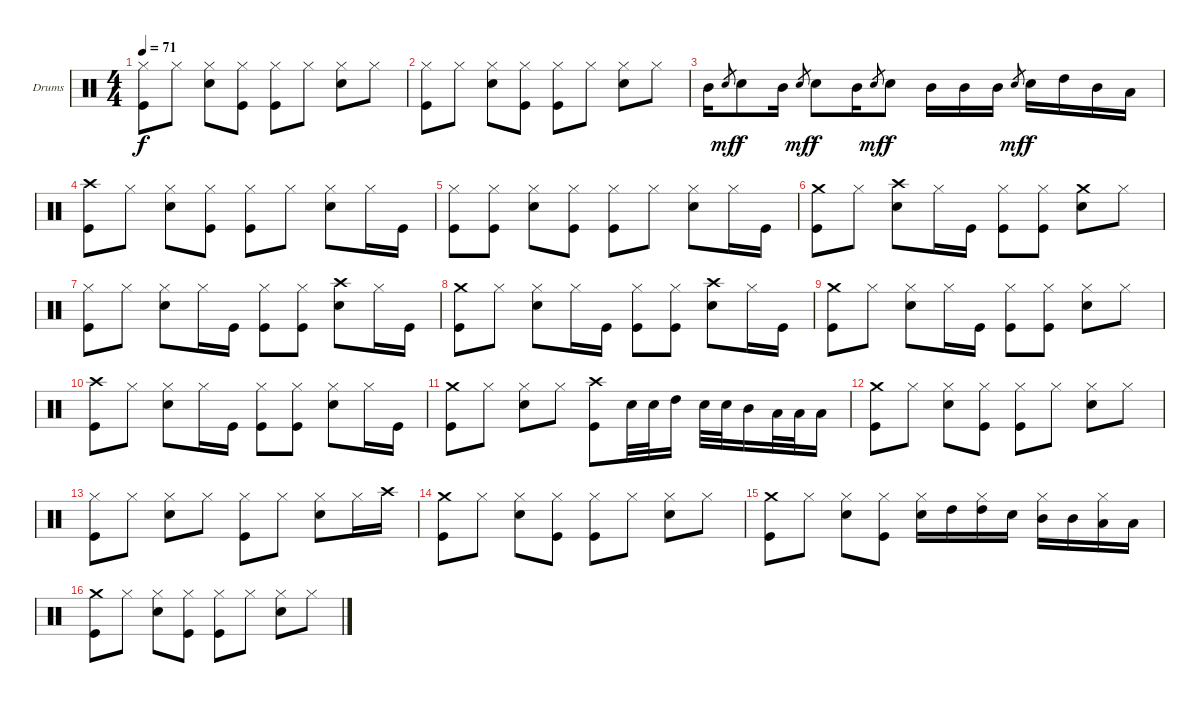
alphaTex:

\bracketExtendMode groupsimilarinstruments
\firstSystemTrackNameOrientation horizontal
\otherSystemsTrackNameOrientation horizontal
\track ("Барабаны" "Drums") {instrument percussion}
\staff {score}
\articulation defaults
\ts (4 4)
\tempo 71
\clef neutral
\scale
0.333333
\ks c
("Hi-Hat (closed)" "Kick (hit)").8{dy f} "Hi-Hat (closed)".8 ("Hi-Hat (closed)" "Snare (hit) 2").8 ("Hi-Hat (closed)" "Kick (hit)").8 ("Hi-Hat (closed)" "Kick (hit)").8 "Hi-Hat (closed)".8 ("Hi-Hat (closed)" "Snare (hit) 2").8 "Hi-Hat (closed)".8 |
\scale
0.333333 ("Hi-Hat (closed)" "Kick (hit)").8 "Hi-Hat (closed)".8 ("Hi-Hat (closed)" "Snare (hit) 2").8 ("Hi-Hat (closed)" "Kick (hit)").8 ("Hi-Hat (closed)" "Kick (hit)").8 "Hi-Hat (closed)".8 ("Hi-Hat (closed)" "Snare (hit) 2").8 "Hi-Hat (closed)".8 |
\scale
0.333333 "Mid Tom (hit)".16 "Snare (hit) 2".8{gr dy mf} "Snare (hit) 2".8{dy f} "Mid Tom (hit)".16 "Snare (hit) 2".8{gr dy mf} "Snare (hit) 2".8{dy f} "Mid Tom (hit)".16 "Snare (hit) 2".8{gr dy mf} "Snare (hit) 2".8{dy f} "Mid Tom (hit)".16 "Mid Tom (hit)".16 "Mid Tom (hit)".16 "Snare (hit) 2".8{gr dy mf} "Snare (hit) 2".16{dy f} "High Tom (hit)".16 "Mid Tom (hit)".16 "Low Tom (hit)".16 |
\scale
0.333333 ("Crash high (hit)" "Kick (hit)").8 "Hi-Hat (closed)".8 ("Hi-Hat (closed)" "Snare (hit) 2").8 ("Hi-Hat (closed)" "Kick (hit)").8 ("Hi-Hat (closed)" "Kick (hit)").8 "Hi-Hat (closed)".8 ("Hi-Hat (closed)" "Snare (hit) 2").8 "Hi-Hat (closed)".16 "Kick (hit)".16 |
\scale
0.333333 ("Hi-Hat (closed)" "Kick (hit)").8 ("Hi-Hat (closed)" "Kick (hit)").8 ("Hi-Hat (closed)" "Snare (hit) 2").8 ("Hi-Hat (closed)" "Kick (hit)").8 ("Hi-Hat (closed)" "Kick (hit)").8 "Hi-Hat (closed)".8 ("Hi-Hat (closed)" "Snare (hit) 2").8 "Hi-Hat (closed)".16 "Kick (hit)".16 |
\scale
0.333333 ("Crash medium (hit)" "Kick (hit)").8 "Hi-Hat (closed)".8 ("Crash high (hit)" "Snare (hit) 2").8 "Hi-Hat (closed)".16 "Kick (hit)".16 ("Hi-Hat (closed)" "Kick (hit)").8 ("Hi-Hat (closed)" "Kick (hit)").8 ("Crash medium (hit)" "Snare (hit) 2").8 "Hi-Hat (closed)".8 |
\scale
0.333333 ("Hi-Hat (closed)" "Kick (hit)").8 "Hi-Hat (closed)".8 ("Hi-Hat (closed)" "Snare (hit) 2").8 "Hi-Hat (closed)".16 "Kick (hit)".16 ("Hi-Hat (closed)" "Kick (hit)").8 ("Hi-Hat (closed)" "Kick (hit)").8 ("Crash high (hit)" "Snare (hit) 2").8 "Hi-Hat (closed)".16 "Kick (hit)".16 |
\scale
0.333333 ("Crash medium (hit)" "Kick (hit)").8 "Hi-Hat (closed)".8 ("Hi-Hat (closed)" "Snare (hit) 2").8 "Hi-Hat (closed)".16 "Kick (hit)".16 ("Hi-Hat (closed)" "Kick (hit)").8 ("Hi-Hat (closed)" "Kick (hit)").8 ("Crash high (hit)" "Snare (hit) 2").8 "Hi-Hat (closed)".16 "Kick (hit)".16 |
\scale
0.333333 ("Crash medium (hit)" "Kick (hit)").8 "Hi-Hat (closed)".8 ("Hi-Hat (closed)" "Snare (hit) 2").8 "Hi-Hat (closed)".16 "Kick (hit)".16 ("Hi-Hat (closed)" "Kick (hit)").8 ("Hi-Hat (closed)" "Kick (hit)").8 ("Hi-Hat (closed)" "Snare (hit) 2").8 "Hi-Hat (closed)".8 |
\scale
0.333333 ("Crash high (hit)" "Kick (hit)").8 "Hi-Hat (closed)".8 ("Hi-Hat (closed)" "Snare (hit) 2").8 "Hi-Hat (closed)".16 "Kick (hit)".16 ("Hi-Hat (closed)" "Kick (hit)").8 ("Hi-Hat (closed)" "Kick (hit)").8 ("Hi-Hat (closed)" "Snare (hit) 2").8 "Hi-Hat (closed)".16 "Kick (hit)".16 |
\scale
0.333333 ("Crash medium (hit)" "Kick (hit)").8 "Hi-Hat (closed)".8 ("Hi-Hat (closed)" "Snare (hit) 2").8 "Hi-Hat (closed)".8 ("Crash high (hit)" "Kick (hit)").8 "Snare (hit) 2".32 "Snare (hit) 2".32 "High Tom (hit)".16 "Snare (hit) 2".32 "Snare (hit) 2".32 "Mid Tom (hit)".16 "Low Tom (hit)".32 "Low Tom (hit)".32 "Low Tom (hit)".16 |
\scale
0.333333 ("Crash medium (hit)" "Kick (hit)").8 "Hi-Hat (closed)".8 ("Hi-Hat (closed)" "Snare (hit) 2").8 ("Hi-Hat (closed)" "Kick (hit)").8 ("Hi-Hat (closed)" "Kick (hit)").8 "Hi-Hat (closed)".8 ("Hi-Hat (closed)" "Snare (hit) 2").8 "Hi-Hat (closed)".8 |
\scale
0.333333 ("Hi-Hat (closed)" "Kick (hit)").8 "Hi-Hat (closed)".8 ("Hi-Hat (closed)" "Snare (hit) 2").8 "Hi-Hat (closed)".8 ("Hi-Hat (closed)" "Kick (hit)").8 "Hi-Hat (closed)".8 ("Hi-Hat (closed)" "Snare (hit) 2").8 "Hi-Hat (closed)".16 "Crash high (hit)".16 |
\scale
0.333333 ("Crash medium (hit)" "Kick (hit)").8 "Hi-Hat (closed)".8 ("Hi-Hat (closed)" "Snare (hit) 2").8 ("Hi-Hat (closed)" "Kick (hit)").8 ("Hi-Hat (closed)" "Kick (hit)").8 "Hi-Hat (closed)".8 ("Hi-Hat (closed)" "Snare (hit) 2").8 "Hi-Hat (closed)".8 |
\scale
0.333333 ("Crash medium (hit)" "Kick (hit)").8 "Hi-Hat (closed)".8 ("Hi-Hat (closed)" "Snare (hit) 2").8 ("Hi-Hat (closed)" "Kick (hit)").8 ("Hi-Hat (closed)" "Snare (hit) 2").16 "High Tom (hit)".16 ("Hi-Hat (closed)" "High Tom (hit)").16 "Snare (hit) 2".16 ("Hi-Hat (closed)" "Mid Tom (hit)").16 "Mid Tom (hit)".16 ("Hi-Hat (closed)" "Low Tom (hit)").16 "Low Tom (hit)".16 |
\scale
0.333333 ("Crash medium (hit)" "Kick (hit)").8 "Hi-Hat (closed)".8 ("Hi-Hat (closed)" "Snare (hit) 2").8 ("Hi-Hat (closed)" "Kick (hit)").8 ("Hi-Hat (closed)" "Kick (hit)").8 "Hi-Hat (closed)".8 ("Hi-Hat (closed)" "Snare (hit) 2").8 "Hi-Hat (closed)".8
